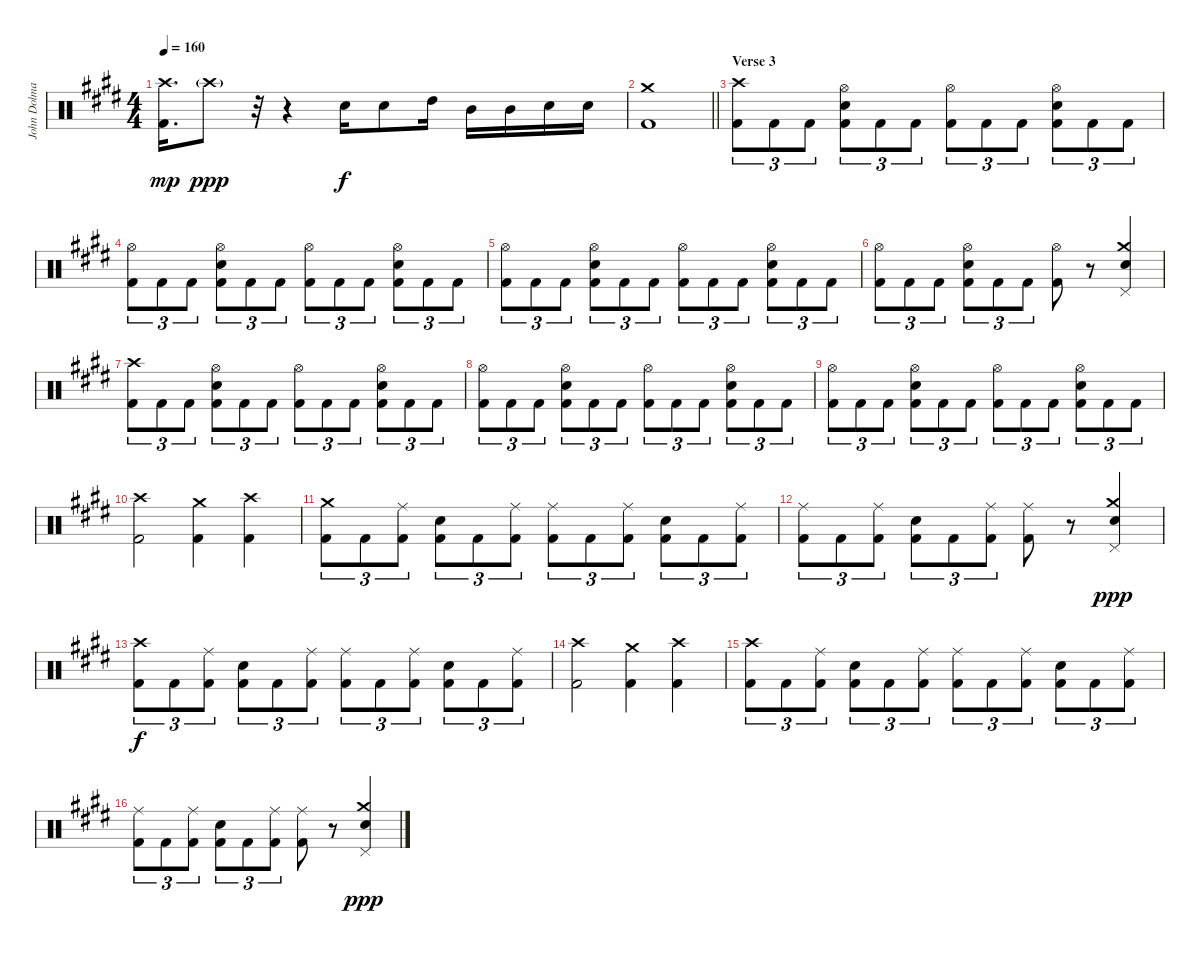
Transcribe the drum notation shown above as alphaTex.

\track ("John Dolmayan [Drums]" "John Dolma") {instrument percussion}
\staff {score}
\articulation defaults
\ts (4 4)
\tempo 160
\clef neutral
\ks c#minor
("Crash high (hit)" "Kick (hit) 2").16{d dy mp} "Crash high (hit)"{g}.8{dy ppp} r.32 r.4 "Electric Snare (hit)".16{dy f} "Electric Snare (hit)".8 "High Tom (hit)".16 "Mid Tom (hit)".16 "Mid Tom (hit)".16 "Electric Snare (hit)".16 "Electric Snare (hit)".16 |
\barLineRight lightlight
("Crash medium (hit)" "Kick (hit) 2").1 |
\section ("" "Verse 3")
("Crash high (hit)" "Kick (hit) 2").8{tu (3 2)} "Kick (hit) 2".8{tu (3 2)} "Kick (hit) 2".8{tu (3 2)} ("Hi-Hat (open)" "Electric Snare (hit)" "Kick (hit) 2").8{tu (3 2)} "Kick (hit) 2".8{tu (3 2)} "Kick (hit) 2".8{tu (3 2)} ("Hi-Hat (open)" "Kick (hit) 2").8{tu (3 2)} "Kick (hit) 2".8{tu (3 2)} "Kick (hit) 2".8{tu (3 2)} ("Hi-Hat (open)" "Electric Snare (hit)" "Kick (hit) 2").8{tu (3 2)} "Kick (hit) 2".8{tu (3 2)} "Kick (hit) 2".8{tu (3 2)} |
("Hi-Hat (open)" "Kick (hit) 2").8{tu (3 2)} "Kick (hit) 2".8{tu (3 2)} "Kick (hit) 2".8{tu (3 2)} ("Hi-Hat (open)" "Electric Snare (hit)" "Kick (hit) 2").8{tu (3 2)} "Kick (hit) 2".8{tu (3 2)} "Kick (hit) 2".8{tu (3 2)} ("Hi-Hat (open)" "Kick (hit) 2").8{tu (3 2)} "Kick (hit) 2".8{tu (3 2)} "Kick (hit) 2".8{tu (3 2)} ("Hi-Hat (open)" "Electric Snare (hit)" "Kick (hit) 2").8{tu (3 2)} "Kick (hit) 2".8{tu (3 2)} "Kick (hit) 2".8{tu (3 2)} |
("Hi-Hat (open)" "Kick (hit) 2").8{tu (3 2)} "Kick (hit) 2".8{tu (3 2)} "Kick (hit) 2".8{tu (3 2)} ("Hi-Hat (open)" "Electric Snare (hit)" "Kick (hit) 2").8{tu (3 2)} "Kick (hit) 2".8{tu (3 2)} "Kick (hit) 2".8{tu (3 2)} ("Hi-Hat (open)" "Kick (hit) 2").8{tu (3 2)} "Kick (hit) 2".8{tu (3 2)} "Kick (hit) 2".8{tu (3 2)} ("Hi-Hat (open)" "Electric Snare (hit)" "Kick (hit) 2").8{tu (3 2)} "Kick (hit) 2".8{tu (3 2)} "Kick (hit) 2".8{tu (3 2)} |
("Hi-Hat (open)" "Kick (hit) 2").8{tu (3 2)} "Kick (hit) 2".8{tu (3 2)} "Kick (hit) 2".8{tu (3 2)} ("Hi-Hat (open)" "Electric Snare (hit)" "Kick (hit) 2").8{tu (3 2)} "Kick (hit) 2".8{tu (3 2)} "Kick (hit) 2".8{tu (3 2)} ("Hi-Hat (open)" "Kick (hit) 2").8 r.8 ("Crash medium (hit)" "Pedal Hi-Hat (hit)" "Electric Snare (hit)").4 |
("Crash high (hit)" "Kick (hit) 2").8{tu (3 2)} "Kick (hit) 2".8{tu (3 2)} "Kick (hit) 2".8{tu (3 2)} ("Hi-Hat (open)" "Electric Snare (hit)" "Kick (hit) 2").8{tu (3 2)} "Kick (hit) 2".8{tu (3 2)} "Kick (hit) 2".8{tu (3 2)} ("Hi-Hat (open)" "Kick (hit) 2").8{tu (3 2)} "Kick (hit) 2".8{tu (3 2)} "Kick (hit) 2".8{tu (3 2)} ("Hi-Hat (open)" "Electric Snare (hit)" "Kick (hit) 2").8{tu (3 2)} "Kick (hit) 2".8{tu (3 2)} "Kick (hit) 2".8{tu (3 2)} |
("Hi-Hat (open)" "Kick (hit) 2").8{tu (3 2)} "Kick (hit) 2".8{tu (3 2)} "Kick (hit) 2".8{tu (3 2)} ("Hi-Hat (open)" "Electric Snare (hit)" "Kick (hit) 2").8{tu (3 2)} "Kick (hit) 2".8{tu (3 2)} "Kick (hit) 2".8{tu (3 2)} ("Hi-Hat (open)" "Kick (hit) 2").8{tu (3 2)} "Kick (hit) 2".8{tu (3 2)} "Kick (hit) 2".8{tu (3 2)} ("Hi-Hat (open)" "Electric Snare (hit)" "Kick (hit) 2").8{tu (3 2)} "Kick (hit) 2".8{tu (3 2)} "Kick (hit) 2".8{tu (3 2)} |
("Hi-Hat (open)" "Kick (hit) 2").8{tu (3 2)} "Kick (hit) 2".8{tu (3 2)} "Kick (hit) 2".8{tu (3 2)} ("Hi-Hat (open)" "Electric Snare (hit)" "Kick (hit) 2").8{tu (3 2)} "Kick (hit) 2".8{tu (3 2)} "Kick (hit) 2".8{tu (3 2)} ("Hi-Hat (open)" "Kick (hit) 2").8{tu (3 2)} "Kick (hit) 2".8{tu (3 2)} "Kick (hit) 2".8{tu (3 2)} ("Hi-Hat (open)" "Electric Snare (hit)" "Kick (hit) 2").8{tu (3 2)} "Kick (hit) 2".8{tu (3 2)} "Kick (hit) 2".8{tu (3 2)} |
("Crash high (hit)" "Kick (hit) 2").2 ("Crash medium (hit)" "Kick (hit) 2").4 ("Crash high (hit)" "Kick (hit) 2").4 |
("Crash medium (hit)" "Kick (hit) 2").8{tu (3 2)} "Kick (hit) 2".8{tu (3 2)} ("Ride (middle)" "Kick (hit) 2").8{tu (3 2)} ("Electric Snare (hit)" "Kick (hit) 2").8{tu (3 2)} "Kick (hit) 2".8{tu (3 2)} ("Ride (middle)" "Kick (hit) 2").8{tu (3 2)} ("Ride (middle)" "Kick (hit) 2").8{tu (3 2)} "Kick (hit) 2".8{tu (3 2)} ("Ride (middle)" "Kick (hit) 2").8{tu (3 2)} ("Electric Snare (hit)" "Kick (hit) 2").8{tu (3 2)} "Kick (hit) 2".8{tu (3 2)} ("Ride (middle)" "Kick (hit) 2").8{tu (3 2)} |
("Ride (middle)" "Kick (hit) 2").8{tu (3 2)} "Kick (hit) 2".8{tu (3 2)} ("Ride (middle)" "Kick (hit) 2").8{tu (3 2)} ("Electric Snare (hit)" "Kick (hit) 2").8{tu (3 2)} "Kick (hit) 2".8{tu (3 2)} ("Ride (middle)" "Kick (hit) 2").8{tu (3 2)} ("Ride (middle)" "Kick (hit) 2").8 r.8 ("Crash medium (hit)" "Pedal Hi-Hat (hit)" "Electric Snare (hit)").4{dy ppp} |
("Crash high (hit)" "Kick (hit) 2").8{tu (3 2) dy f} "Kick (hit) 2".8{tu (3 2)} ("Ride (middle)" "Kick (hit) 2").8{tu (3 2)} ("Electric Snare (hit)" "Kick (hit) 2").8{tu (3 2)} "Kick (hit) 2".8{tu (3 2)} ("Ride (middle)" "Kick (hit) 2").8{tu (3 2)} ("Ride (middle)" "Kick (hit) 2").8{tu (3 2)} "Kick (hit) 2".8{tu (3 2)} ("Ride (middle)" "Kick (hit) 2").8{tu (3 2)} ("Electric Snare (hit)" "Kick (hit) 2").8{tu (3 2)} "Kick (hit) 2".8{tu (3 2)} ("Ride (middle)" "Kick (hit) 2").8{tu (3 2)} |
("Crash high (hit)" "Kick (hit) 2").2 ("Crash medium (hit)" "Kick (hit) 2").4 ("Crash high (hit)" "Kick (hit) 2").4 |
("Crash high (hit)" "Kick (hit) 2").8{tu (3 2)} "Kick (hit) 2".8{tu (3 2)} ("Ride (middle)" "Kick (hit) 2").8{tu (3 2)} ("Electric Snare (hit)" "Kick (hit) 2").8{tu (3 2)} "Kick (hit) 2".8{tu (3 2)} ("Ride (middle)" "Kick (hit) 2").8{tu (3 2)} ("Ride (middle)" "Kick (hit) 2").8{tu (3 2)} "Kick (hit) 2".8{tu (3 2)} ("Ride (middle)" "Kick (hit) 2").8{tu (3 2)} ("Electric Snare (hit)" "Kick (hit) 2").8{tu (3 2)} "Kick (hit) 2".8{tu (3 2)} ("Ride (middle)" "Kick (hit) 2").8{tu (3 2)} |
("Ride (middle)" "Kick (hit) 2").8{tu (3 2)} "Kick (hit) 2".8{tu (3 2)} ("Ride (middle)" "Kick (hit) 2").8{tu (3 2)} ("Electric Snare (hit)" "Kick (hit) 2").8{tu (3 2)} "Kick (hit) 2".8{tu (3 2)} ("Ride (middle)" "Kick (hit) 2").8{tu (3 2)} ("Ride (middle)" "Kick (hit) 2").8 r.8 ("Crash medium (hit)" "Pedal Hi-Hat (hit)" "Electric Snare (hit)").4{dy ppp}
